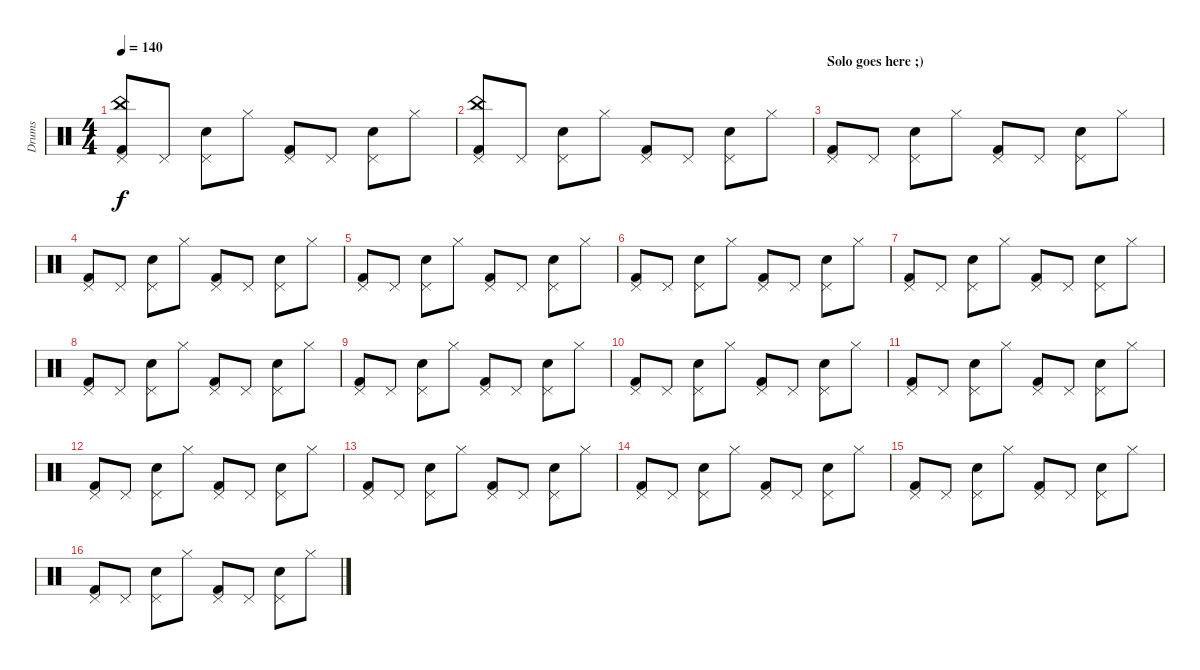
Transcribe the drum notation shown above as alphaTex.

\track ("Drums" "Drums") {instrument percussion}
\staff {score}
\articulation defaults
\ts (4 4)
\tempo 140
\clef neutral
\ks c
("Kick (hit) 2" "China (hit)" "Pedal Hi-Hat (hit)").8{dy f} "Pedal Hi-Hat (hit)".8 ("Snare (hit) 2" "Pedal Hi-Hat (hit)").8 "Hi-Hat (closed)".8 ("Kick (hit) 2" "Pedal Hi-Hat (hit)").8 "Pedal Hi-Hat (hit)".8 ("Snare (hit) 2" "Pedal Hi-Hat (hit)").8 "Hi-Hat (closed)".8 |
("Kick (hit) 2" "China (hit)" "Pedal Hi-Hat (hit)").8 "Pedal Hi-Hat (hit)".8 ("Snare (hit) 2" "Pedal Hi-Hat (hit)").8 "Hi-Hat (closed)".8 ("Kick (hit) 2" "Pedal Hi-Hat (hit)").8 "Pedal Hi-Hat (hit)".8 ("Snare (hit) 2" "Pedal Hi-Hat (hit)").8 "Hi-Hat (closed)".8 |
\section ("" "Solo goes here ;)")
("Kick (hit) 2" "Pedal Hi-Hat (hit)").8 "Pedal Hi-Hat (hit)".8 ("Snare (hit) 2" "Pedal Hi-Hat (hit)").8 "Hi-Hat (closed)".8 ("Kick (hit) 2" "Pedal Hi-Hat (hit)").8 "Pedal Hi-Hat (hit)".8 ("Snare (hit) 2" "Pedal Hi-Hat (hit)").8 "Hi-Hat (closed)".8 |
("Kick (hit) 2" "Pedal Hi-Hat (hit)").8 "Pedal Hi-Hat (hit)".8 ("Snare (hit) 2" "Pedal Hi-Hat (hit)").8 "Hi-Hat (closed)".8 ("Kick (hit) 2" "Pedal Hi-Hat (hit)").8 "Pedal Hi-Hat (hit)".8 ("Snare (hit) 2" "Pedal Hi-Hat (hit)").8 "Hi-Hat (closed)".8 |
("Kick (hit) 2" "Pedal Hi-Hat (hit)").8 "Pedal Hi-Hat (hit)".8 ("Snare (hit) 2" "Pedal Hi-Hat (hit)").8 "Hi-Hat (closed)".8 ("Kick (hit) 2" "Pedal Hi-Hat (hit)").8 "Pedal Hi-Hat (hit)".8 ("Snare (hit) 2" "Pedal Hi-Hat (hit)").8 "Hi-Hat (closed)".8 |
("Kick (hit) 2" "Pedal Hi-Hat (hit)").8 "Pedal Hi-Hat (hit)".8 ("Snare (hit) 2" "Pedal Hi-Hat (hit)").8 "Hi-Hat (closed)".8 ("Kick (hit) 2" "Pedal Hi-Hat (hit)").8 "Pedal Hi-Hat (hit)".8 ("Snare (hit) 2" "Pedal Hi-Hat (hit)").8 "Hi-Hat (closed)".8 |
("Kick (hit) 2" "Pedal Hi-Hat (hit)").8 "Pedal Hi-Hat (hit)".8 ("Snare (hit) 2" "Pedal Hi-Hat (hit)").8 "Hi-Hat (closed)".8 ("Kick (hit) 2" "Pedal Hi-Hat (hit)").8 "Pedal Hi-Hat (hit)".8 ("Snare (hit) 2" "Pedal Hi-Hat (hit)").8 "Hi-Hat (closed)".8 |
("Kick (hit) 2" "Pedal Hi-Hat (hit)").8 "Pedal Hi-Hat (hit)".8 ("Snare (hit) 2" "Pedal Hi-Hat (hit)").8 "Hi-Hat (closed)".8 ("Kick (hit) 2" "Pedal Hi-Hat (hit)").8 "Pedal Hi-Hat (hit)".8 ("Snare (hit) 2" "Pedal Hi-Hat (hit)").8 "Hi-Hat (closed)".8 |
("Kick (hit) 2" "Pedal Hi-Hat (hit)").8 "Pedal Hi-Hat (hit)".8 ("Snare (hit) 2" "Pedal Hi-Hat (hit)").8 "Hi-Hat (closed)".8 ("Kick (hit) 2" "Pedal Hi-Hat (hit)").8 "Pedal Hi-Hat (hit)".8 ("Snare (hit) 2" "Pedal Hi-Hat (hit)").8 "Hi-Hat (closed)".8 |
("Kick (hit) 2" "Pedal Hi-Hat (hit)").8 "Pedal Hi-Hat (hit)".8 ("Snare (hit) 2" "Pedal Hi-Hat (hit)").8 "Hi-Hat (closed)".8 ("Kick (hit) 2" "Pedal Hi-Hat (hit)").8 "Pedal Hi-Hat (hit)".8 ("Snare (hit) 2" "Pedal Hi-Hat (hit)").8 "Hi-Hat (closed)".8 |
("Kick (hit) 2" "Pedal Hi-Hat (hit)").8 "Pedal Hi-Hat (hit)".8 ("Snare (hit) 2" "Pedal Hi-Hat (hit)").8 "Hi-Hat (closed)".8 ("Kick (hit) 2" "Pedal Hi-Hat (hit)").8 "Pedal Hi-Hat (hit)".8 ("Snare (hit) 2" "Pedal Hi-Hat (hit)").8 "Hi-Hat (closed)".8 |
("Kick (hit) 2" "Pedal Hi-Hat (hit)").8 "Pedal Hi-Hat (hit)".8 ("Snare (hit) 2" "Pedal Hi-Hat (hit)").8 "Hi-Hat (closed)".8 ("Kick (hit) 2" "Pedal Hi-Hat (hit)").8 "Pedal Hi-Hat (hit)".8 ("Snare (hit) 2" "Pedal Hi-Hat (hit)").8 "Hi-Hat (closed)".8 |
("Kick (hit) 2" "Pedal Hi-Hat (hit)").8 "Pedal Hi-Hat (hit)".8 ("Snare (hit) 2" "Pedal Hi-Hat (hit)").8 "Hi-Hat (closed)".8 ("Kick (hit) 2" "Pedal Hi-Hat (hit)").8 "Pedal Hi-Hat (hit)".8 ("Snare (hit) 2" "Pedal Hi-Hat (hit)").8 "Hi-Hat (closed)".8 |
("Kick (hit) 2" "Pedal Hi-Hat (hit)").8 "Pedal Hi-Hat (hit)".8 ("Snare (hit) 2" "Pedal Hi-Hat (hit)").8 "Hi-Hat (closed)".8 ("Kick (hit) 2" "Pedal Hi-Hat (hit)").8 "Pedal Hi-Hat (hit)".8 ("Snare (hit) 2" "Pedal Hi-Hat (hit)").8 "Hi-Hat (closed)".8 |
("Kick (hit) 2" "Pedal Hi-Hat (hit)").8 "Pedal Hi-Hat (hit)".8 ("Snare (hit) 2" "Pedal Hi-Hat (hit)").8 "Hi-Hat (closed)".8 ("Kick (hit) 2" "Pedal Hi-Hat (hit)").8 "Pedal Hi-Hat (hit)".8 ("Snare (hit) 2" "Pedal Hi-Hat (hit)").8 "Hi-Hat (closed)".8 |
("Kick (hit) 2" "Pedal Hi-Hat (hit)").8 "Pedal Hi-Hat (hit)".8 ("Snare (hit) 2" "Pedal Hi-Hat (hit)").8 "Hi-Hat (closed)".8 ("Kick (hit) 2" "Pedal Hi-Hat (hit)").8 "Pedal Hi-Hat (hit)".8 ("Snare (hit) 2" "Pedal Hi-Hat (hit)").8 "Hi-Hat (closed)".8
